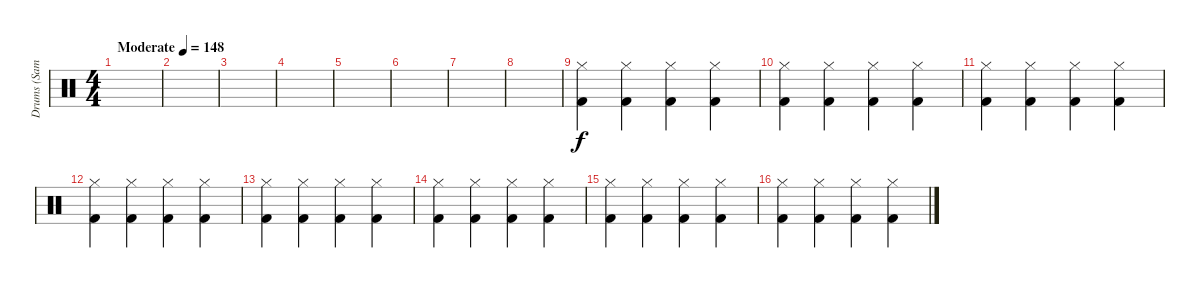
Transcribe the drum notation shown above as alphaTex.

\track ("Drums (Samuelson)" "Drums (Sam") {instrument percussion}
\staff
\articulation defaults
\ts (4 4)
\tempo (148 "Moderate")
\clef neutral
\ks c
|
|
|
|
|
|
|
|
("Hi-Hat (closed)" "Kick (hit) 2").4 ("Hi-Hat (closed)" "Kick (hit) 2").4 ("Hi-Hat (closed)" "Kick (hit) 2").4 ("Hi-Hat (closed)" "Kick (hit) 2").4 |
("Hi-Hat (closed)" "Kick (hit) 2").4 ("Hi-Hat (closed)" "Kick (hit) 2").4 ("Hi-Hat (closed)" "Kick (hit) 2").4 ("Hi-Hat (closed)" "Kick (hit) 2").4 |
("Hi-Hat (closed)" "Kick (hit) 2").4 ("Hi-Hat (closed)" "Kick (hit) 2").4 ("Hi-Hat (closed)" "Kick (hit) 2").4 ("Hi-Hat (closed)" "Kick (hit) 2").4 |
("Hi-Hat (closed)" "Kick (hit) 2").4 ("Hi-Hat (closed)" "Kick (hit) 2").4 ("Hi-Hat (closed)" "Kick (hit) 2").4 ("Hi-Hat (closed)" "Kick (hit) 2").4 |
("Hi-Hat (closed)" "Kick (hit) 2").4 ("Hi-Hat (closed)" "Kick (hit) 2").4 ("Hi-Hat (closed)" "Kick (hit) 2").4 ("Hi-Hat (closed)" "Kick (hit) 2").4 |
("Hi-Hat (closed)" "Kick (hit) 2").4 ("Hi-Hat (closed)" "Kick (hit) 2").4 ("Hi-Hat (closed)" "Kick (hit) 2").4 ("Hi-Hat (closed)" "Kick (hit) 2").4 |
("Hi-Hat (closed)" "Kick (hit) 2").4 ("Hi-Hat (closed)" "Kick (hit) 2").4 ("Hi-Hat (closed)" "Kick (hit) 2").4 ("Hi-Hat (closed)" "Kick (hit) 2").4 |
("Hi-Hat (closed)" "Kick (hit) 2").4 ("Hi-Hat (closed)" "Kick (hit) 2").4 ("Hi-Hat (closed)" "Kick (hit) 2").4 ("Hi-Hat (closed)" "Kick (hit) 2").4
